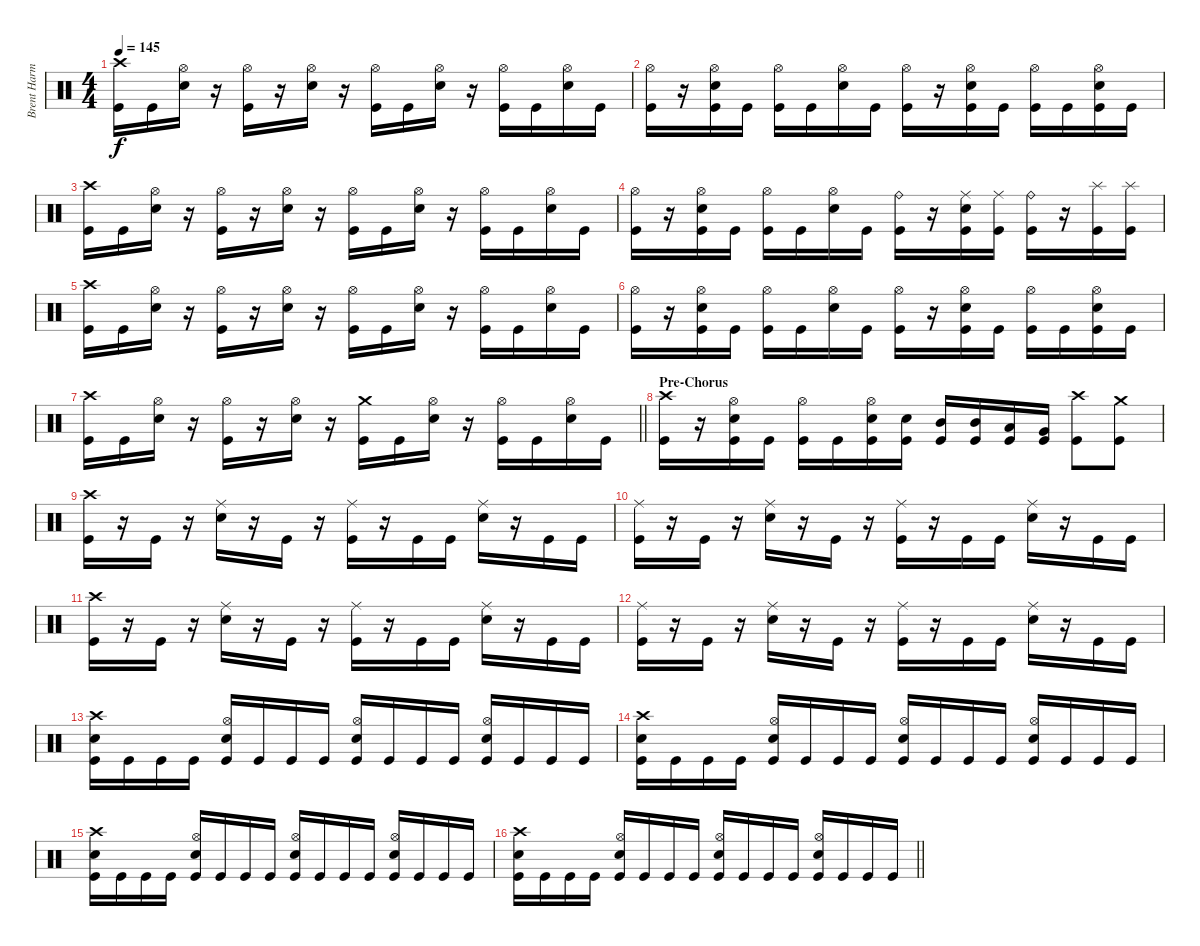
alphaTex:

\track ("Brent Harman" "Brent Harm") {instrument percussion}
\staff {score}
\articulation defaults
\ts (4 4)
\tempo 145
\clef neutral
\ks c
("Crash high (hit)" "Kick (hit)").16{dy f} "Kick (hit)".16 ("Hi-Hat (open)" "Snare (hit) 2").16 r.16 ("Hi-Hat (open)" "Kick (hit)").16 r.16 ("Hi-Hat (open)" "Snare (hit) 2").16 r.16 ("Hi-Hat (open)" "Kick (hit)").16 "Kick (hit)".16 ("Hi-Hat (open)" "Snare (hit) 2").16 r.16 ("Hi-Hat (open)" "Kick (hit)").16 "Kick (hit)".16 ("Hi-Hat (open)" "Snare (hit) 2").16 "Kick (hit)".16 |
("Hi-Hat (open)" "Kick (hit)").16 r.16 ("Hi-Hat (open)" "Snare (hit) 2" "Kick (hit)").16 "Kick (hit)".16 ("Hi-Hat (open)" "Kick (hit)").16 "Kick (hit)".16 ("Hi-Hat (open)" "Snare (hit) 2").16 "Kick (hit)".16 ("Hi-Hat (open)" "Kick (hit)").16 r.16 ("Hi-Hat (open)" "Snare (hit) 2" "Kick (hit)").16 "Kick (hit)".16 ("Hi-Hat (open)" "Kick (hit)").16 "Kick (hit)".16 ("Hi-Hat (open)" "Snare (hit) 2" "Kick (hit)").16 "Kick (hit)".16 |
("Crash high (hit)" "Kick (hit)").16 "Kick (hit)".16 ("Hi-Hat (open)" "Snare (hit) 2").16 r.16 ("Hi-Hat (open)" "Kick (hit)").16 r.16 ("Hi-Hat (open)" "Snare (hit) 2").16 r.16 ("Hi-Hat (open)" "Kick (hit)").16 "Kick (hit)".16 ("Hi-Hat (open)" "Snare (hit) 2").16 r.16 ("Hi-Hat (open)" "Kick (hit)").16 "Kick (hit)".16 ("Hi-Hat (open)" "Snare (hit) 2").16 "Kick (hit)".16 |
("Hi-Hat (open)" "Kick (hit)").16 r.16 ("Hi-Hat (open)" "Snare (hit) 2" "Kick (hit)").16 "Kick (hit)".16 ("Hi-Hat (open)" "Kick (hit)").16 "Kick (hit)".16 ("Hi-Hat (open)" "Snare (hit) 2").16 "Kick (hit)".16 ("Ride (bell)" "Kick (hit)").16 r.16 ("Ride (middle)" "Snare (hit) 2" "Kick (hit)").16 ("Ride (middle)" "Kick (hit)").16 ("Ride (bell)" "Kick (hit)").16 r.16 ("Splash (hit)" "Kick (hit)").16 ("Splash (hit)" "Kick (hit)").16 |
("Crash high (hit)" "Kick (hit)").16 "Kick (hit)".16 ("Hi-Hat (open)" "Snare (hit) 2").16 r.16 ("Hi-Hat (open)" "Kick (hit)").16 r.16 ("Hi-Hat (open)" "Snare (hit) 2").16 r.16 ("Hi-Hat (open)" "Kick (hit)").16 "Kick (hit)".16 ("Hi-Hat (open)" "Snare (hit) 2").16 r.16 ("Hi-Hat (open)" "Kick (hit)").16 "Kick (hit)".16 ("Hi-Hat (open)" "Snare (hit) 2").16 "Kick (hit)".16 |
("Hi-Hat (open)" "Kick (hit)").16 r.16 ("Hi-Hat (open)" "Snare (hit) 2" "Kick (hit)").16 "Kick (hit)".16 ("Hi-Hat (open)" "Kick (hit)").16 "Kick (hit)".16 ("Hi-Hat (open)" "Snare (hit) 2").16 "Kick (hit)".16 ("Hi-Hat (open)" "Kick (hit)").16 r.16 ("Hi-Hat (open)" "Snare (hit) 2" "Kick (hit)").16 "Kick (hit)".16 ("Hi-Hat (open)" "Kick (hit)").16 "Kick (hit)".16 ("Hi-Hat (open)" "Snare (hit) 2" "Kick (hit)").16 "Kick (hit)".16 |
\barLineRight lightlight
("Crash high (hit)" "Kick (hit)").16 "Kick (hit)".16 ("Hi-Hat (open)" "Snare (hit) 2").16 r.16 ("Hi-Hat (open)" "Kick (hit)").16 r.16 ("Hi-Hat (open)" "Snare (hit) 2").16 r.16 ("Crash medium (hit)" "Kick (hit)").16 "Kick (hit)".16 ("Hi-Hat (open)" "Snare (hit) 2").16 r.16 ("Hi-Hat (open)" "Kick (hit)").16 "Kick (hit)".16 ("Hi-Hat (open)" "Snare (hit) 2").16 "Kick (hit)".16 |
\section ("" "Pre-Chorus")
("Crash high (hit)" "Kick (hit)").16 r.16 ("Hi-Hat (open)" "Snare (hit) 2" "Kick (hit)").16 "Kick (hit)".16 ("Hi-Hat (open)" "Kick (hit)").16 "Kick (hit)".16 ("Hi-Hat (open)" "Snare (hit) 2" "Kick (hit)").16 ("Snare (hit) 2" "Kick (hit)").16 ("Mid Tom (hit)" "Kick (hit)").16 ("Mid Tom (hit)" "Kick (hit)").16 ("Low Tom (hit)" "Kick (hit)").16 ("Very Low Tom (hit)" "Kick (hit)").16 ("Crash high (hit)" "Kick (hit)").8 ("Crash medium (hit)" "Kick (hit)").8 |
("Crash high (hit)" "Kick (hit)").16 r.16 "Kick (hit)".16 r.16 ("Ride (middle)" "Snare (hit) 2").16 r.16 "Kick (hit)".16 r.16 ("Ride (middle)" "Kick (hit)").16 r.16 "Kick (hit)".16 "Kick (hit)".16 ("Ride (middle)" "Snare (hit) 2").16 r.16 "Kick (hit)".16 "Kick (hit)".16 |
("Ride (middle)" "Kick (hit)").16 r.16 "Kick (hit)".16 r.16 ("Ride (middle)" "Snare (hit) 2").16 r.16 "Kick (hit)".16 r.16 ("Ride (middle)" "Kick (hit)").16 r.16 "Kick (hit)".16 "Kick (hit)".16 ("Ride (middle)" "Snare (hit) 2").16 r.16 "Kick (hit)".16 "Kick (hit)".16 |
("Crash high (hit)" "Kick (hit)").16 r.16 "Kick (hit)".16 r.16 ("Ride (middle)" "Snare (hit) 2").16 r.16 "Kick (hit)".16 r.16 ("Ride (middle)" "Kick (hit)").16 r.16 "Kick (hit)".16 "Kick (hit)".16 ("Ride (middle)" "Snare (hit) 2").16 r.16 "Kick (hit)".16 "Kick (hit)".16 |
("Ride (middle)" "Kick (hit)").16 r.16 "Kick (hit)".16 r.16 ("Ride (middle)" "Snare (hit) 2").16 r.16 "Kick (hit)".16 r.16 ("Ride (middle)" "Kick (hit)").16 r.16 "Kick (hit)".16 "Kick (hit)".16 ("Ride (middle)" "Snare (hit) 2").16 r.16 "Kick (hit)".16 "Kick (hit)".16 |
("Crash high (hit)" "Snare (hit) 2" "Kick (hit)").16 "Kick (hit)".16 "Kick (hit)".16 "Kick (hit)".16 ("Hi-Hat (open)" "Snare (hit) 2" "Kick (hit)").16 "Kick (hit)".16 "Kick (hit)".16 "Kick (hit)".16 ("Hi-Hat (open)" "Snare (hit) 2" "Kick (hit)").16 "Kick (hit)".16 "Kick (hit)".16 "Kick (hit)".16 ("Hi-Hat (open)" "Snare (hit) 2" "Kick (hit)").16 "Kick (hit)".16 "Kick (hit)".16 "Kick (hit)".16 |
("Crash high (hit)" "Snare (hit) 2" "Kick (hit)").16 "Kick (hit)".16 "Kick (hit)".16 "Kick (hit)".16 ("Hi-Hat (open)" "Snare (hit) 2" "Kick (hit)").16 "Kick (hit)".16 "Kick (hit)".16 "Kick (hit)".16 ("Hi-Hat (open)" "Snare (hit) 2" "Kick (hit)").16 "Kick (hit)".16 "Kick (hit)".16 "Kick (hit)".16 ("Hi-Hat (open)" "Snare (hit) 2" "Kick (hit)").16 "Kick (hit)".16 "Kick (hit)".16 "Kick (hit)".16 |
("Crash high (hit)" "Snare (hit) 2" "Kick (hit)").16 "Kick (hit)".16 "Kick (hit)".16 "Kick (hit)".16 ("Hi-Hat (open)" "Snare (hit) 2" "Kick (hit)").16 "Kick (hit)".16 "Kick (hit)".16 "Kick (hit)".16 ("Hi-Hat (open)" "Snare (hit) 2" "Kick (hit)").16 "Kick (hit)".16 "Kick (hit)".16 "Kick (hit)".16 ("Hi-Hat (open)" "Snare (hit) 2" "Kick (hit)").16 "Kick (hit)".16 "Kick (hit)".16 "Kick (hit)".16 |
\barLineRight lightlight
("Crash high (hit)" "Snare (hit) 2" "Kick (hit)").16 "Kick (hit)".16 "Kick (hit)".16 "Kick (hit)".16 ("Hi-Hat (open)" "Snare (hit) 2" "Kick (hit)").16 "Kick (hit)".16 "Kick (hit)".16 "Kick (hit)".16 ("Hi-Hat (open)" "Snare (hit) 2" "Kick (hit)").16 "Kick (hit)".16 "Kick (hit)".16 "Kick (hit)".16 ("Hi-Hat (open)" "Snare (hit) 2" "Kick (hit)").16 "Kick (hit)".16 "Kick (hit)".16 "Kick (hit)".16
